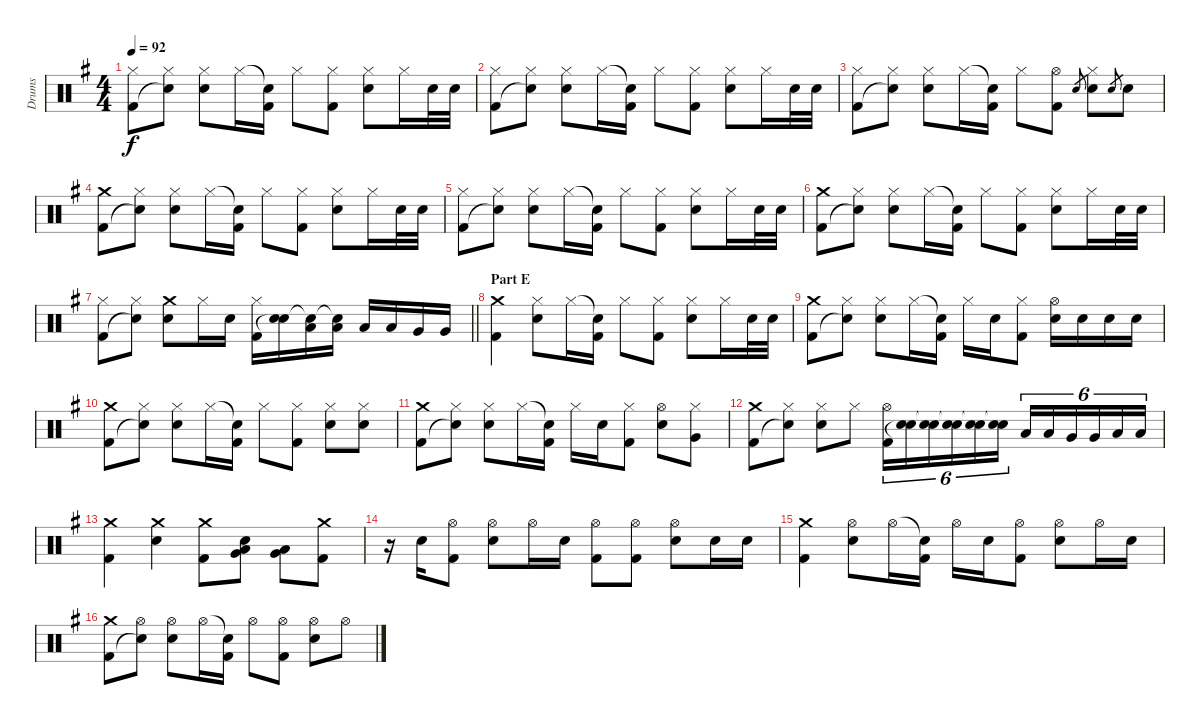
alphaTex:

\track ("Drums" "Drums") {instrument percussion}
\staff {score}
\articulation defaults
\ts (4 4)
\tempo 92
\clef neutral
\ks g
("Hi-Hat (closed)" "Kick (hit) 2").8{dy f} ("Hi-Hat (closed)" "Snare (hit)"{t}).8 ("Hi-Hat (closed)" "Electric Snare (hit)").8 "Hi-Hat (closed)".16 ("Snare (hit)"{t} "Kick (hit) 2").16 "Hi-Hat (closed)".8 ("Hi-Hat (closed)" "Kick (hit) 2").8 ("Hi-Hat (closed)" "Electric Snare (hit)").8 "Hi-Hat (closed)".16 "Electric Snare (hit)".32 "Electric Snare (hit)".32 |
("Hi-Hat (closed)" "Kick (hit) 2").8 ("Hi-Hat (closed)" "Snare (hit)"{t}).8 ("Hi-Hat (closed)" "Electric Snare (hit)").8 "Hi-Hat (closed)".16 ("Snare (hit)"{t} "Kick (hit) 2").16 "Hi-Hat (closed)".8 ("Hi-Hat (closed)" "Kick (hit) 2").8 ("Hi-Hat (closed)" "Electric Snare (hit)").8 "Hi-Hat (closed)".16 "Electric Snare (hit)".32 "Electric Snare (hit)".32 |
("Hi-Hat (closed)" "Kick (hit) 2").8 ("Hi-Hat (closed)" "Snare (hit)"{t}).8 ("Hi-Hat (closed)" "Electric Snare (hit)").8 "Hi-Hat (closed)".16 ("Snare (hit)"{t} "Kick (hit) 2").16 "Hi-Hat (closed)".8 ("Hi-Hat (open)" "Kick (hit) 2").8 "Electric Snare (hit)".8{gr} ("Hi-Hat (closed)" "Electric Snare (hit)").8 "Electric Snare (hit)".8{gr} "Electric Snare (hit)".8 |
("Crash medium (hit)" "Kick (hit) 2").8 ("Hi-Hat (closed)" "Snare (hit)"{t}).8 ("Hi-Hat (closed)" "Electric Snare (hit)").8 "Hi-Hat (closed)".16 ("Snare (hit)"{t} "Kick (hit) 2").16 "Hi-Hat (closed)".8 ("Hi-Hat (closed)" "Kick (hit) 2").8 ("Hi-Hat (closed)" "Electric Snare (hit)").8 "Hi-Hat (closed)".16 "Electric Snare (hit)".32 "Electric Snare (hit)".32 |
("Hi-Hat (closed)" "Kick (hit) 2").8 ("Hi-Hat (closed)" "Snare (hit)"{t}).8 ("Hi-Hat (closed)" "Electric Snare (hit)").8 "Hi-Hat (closed)".16 ("Snare (hit)"{t} "Kick (hit) 2").16 "Hi-Hat (closed)".8 ("Hi-Hat (closed)" "Kick (hit) 2").8 ("Hi-Hat (closed)" "Electric Snare (hit)").8 "Hi-Hat (closed)".16 "Electric Snare (hit)".32 "Electric Snare (hit)".32 |
("Crash medium (hit)" "Kick (hit) 2").8 ("Hi-Hat (closed)" "Snare (hit)"{t}).8 ("Hi-Hat (closed)" "Electric Snare (hit)").8 "Hi-Hat (closed)".16 ("Snare (hit)"{t} "Kick (hit) 2").16 "Hi-Hat (closed)".8 ("Hi-Hat (closed)" "Kick (hit) 2").8 ("Hi-Hat (closed)" "Electric Snare (hit)").8 "Hi-Hat (closed)".16 "Electric Snare (hit)".32 "Electric Snare (hit)".32 |
\barLineRight lightlight
("Hi-Hat (closed)" "Kick (hit) 2").8 ("Hi-Hat (closed)" "Snare (hit)"{t}).8 ("Crash medium (hit)" "Electric Snare (hit)").8 "Hi-Hat (closed)".16 "Electric Snare (hit)".16 ("Hi-Hat (closed)" "Kick (hit) 2").16 ("Electric Snare (hit)" "Snare (hit)"{t}).16 ("Low Tom (hit)" "Snare (hit)"{t}).16 ("Low Tom (hit)" "Snare (hit)"{t}).16 "Low Tom (hit)".16 "Low Tom (hit)".16 "Very Low Tom (hit)".16 "Very Low Tom (hit)".16 |
\section ("" "Part E")
("Crash medium (hit)" "Kick (hit) 2").4 ("Hi-Hat (closed)" "Electric Snare (hit)").8 "Hi-Hat (closed)".16 ("Snare (hit)"{t} "Kick (hit) 2").16 "Hi-Hat (closed)".8 ("Hi-Hat (closed)" "Kick (hit) 2").8 ("Hi-Hat (closed)" "Electric Snare (hit)").8 "Hi-Hat (closed)".16 "Electric Snare (hit)".32 "Electric Snare (hit)".32 |
("Crash medium (hit)" "Kick (hit) 2").8 ("Hi-Hat (closed)" "Snare (hit)"{t}).8 ("Hi-Hat (closed)" "Electric Snare (hit)").8 "Hi-Hat (closed)".16 ("Snare (hit)"{t} "Kick (hit) 2").16 "Hi-Hat (closed)".16 "Electric Snare (hit)".16 ("Hi-Hat (closed)" "Kick (hit) 2").8 ("Hi-Hat (open)" "Electric Snare (hit)").16 "Electric Snare (hit)".16 "Electric Snare (hit)".16 "Electric Snare (hit)".16 |
("Crash medium (hit)" "Kick (hit) 2").8 ("Hi-Hat (closed)" "Snare (hit)"{t}).8 ("Hi-Hat (closed)" "Electric Snare (hit)").8 "Hi-Hat (closed)".16 ("Snare (hit)"{t} "Kick (hit) 2").16 "Hi-Hat (closed)".8 ("Hi-Hat (closed)" "Kick (hit) 2").8 ("Hi-Hat (closed)" "Electric Snare (hit)").8 ("Hi-Hat (closed)" "Electric Snare (hit)").8 |
("Crash medium (hit)" "Kick (hit) 2").8 ("Hi-Hat (closed)" "Snare (hit)"{t}).8 ("Hi-Hat (closed)" "Electric Snare (hit)").8 "Hi-Hat (closed)".16 ("Snare (hit)"{t} "Kick (hit) 2").16 "Hi-Hat (closed)".16 "Electric Snare (hit)".16 ("Hi-Hat (closed)" "Kick (hit) 2").8 ("Hi-Hat (open)" "Electric Snare (hit)").8 ("Hi-Hat (closed)" "Very Low Tom (hit)").8 |
("Crash medium (hit)" "Kick (hit) 2").8 ("Hi-Hat (closed)" "Snare (hit)"{t}).8 ("Hi-Hat (closed)" "Electric Snare (hit)").8 "Hi-Hat (closed)".8 ("Hi-Hat (open)" "Kick (hit) 2").16{tu (6 4)} ("Electric Snare (hit)" "Snare (hit)"{t}).16{tu (6 4)} ("Electric Snare (hit)" "Snare (hit)"{t}).16{tu (6 4)} ("Electric Snare (hit)" "Snare (hit)"{t}).16{tu (6 4)} ("Electric Snare (hit)" "Snare (hit)"{t}).16{tu (6 4)} ("Electric Snare (hit)" "Snare (hit)"{t}).16{tu (6 4)} "Low Tom (hit)".16{tu (6 4)} "Low Tom (hit)".16{tu (6 4)} "Very Low Tom (hit)".16{tu (6 4)} "Very Low Tom (hit)".16{tu (6 4)} "Low Floor Tom (hit)".16{tu (6 4)} "Low Floor Tom (hit)".16{tu (6 4)} |
("Crash medium (hit)" "Kick (hit) 2").4 ("Crash medium (hit)" "Electric Snare (hit)").4 ("Crash medium (hit)" "Kick (hit) 2").8 ("Low Tom (hit)" "Very Low Tom (hit)" "Snare (hit)").8 ("Very Low Tom (hit)" "Low Floor Tom (hit)").8 ("Crash medium (hit)" "Kick (hit) 2").8 |
r.16 "Electric Snare (hit)".16 ("Hi-Hat (open)" "Kick (hit) 2").8 ("Hi-Hat (open)" "Electric Snare (hit)").8 "Hi-Hat (open)".16 "Electric Snare (hit)".16 ("Hi-Hat (open)" "Kick (hit) 2").8 ("Hi-Hat (open)" "Kick (hit) 2").8 ("Hi-Hat (open)" "Electric Snare (hit)").8 "Electric Snare (hit)".16 "Electric Snare (hit)".16 |
("Crash medium (hit)" "Kick (hit) 2").4 ("Hi-Hat (open)" "Electric Snare (hit)").8 "Hi-Hat (open)".16 ("Snare (hit)"{t} "Kick (hit) 2").16 "Hi-Hat (open)".16 "Electric Snare (hit)".16 ("Hi-Hat (open)" "Kick (hit) 2").8 ("Hi-Hat (open)" "Electric Snare (hit)").8 "Hi-Hat (open)".16 "Electric Snare (hit)".16 |
("Crash medium (hit)" "Kick (hit) 2").8 ("Hi-Hat (open)" "Snare (hit)"{t}).8 ("Hi-Hat (open)" "Electric Snare (hit)").8 "Hi-Hat (open)".16 ("Snare (hit)"{t} "Kick (hit) 2").16 "Hi-Hat (open)".8 ("Hi-Hat (open)" "Kick (hit) 2").8 ("Hi-Hat (open)" "Electric Snare (hit)").8 "Hi-Hat (open)".8
